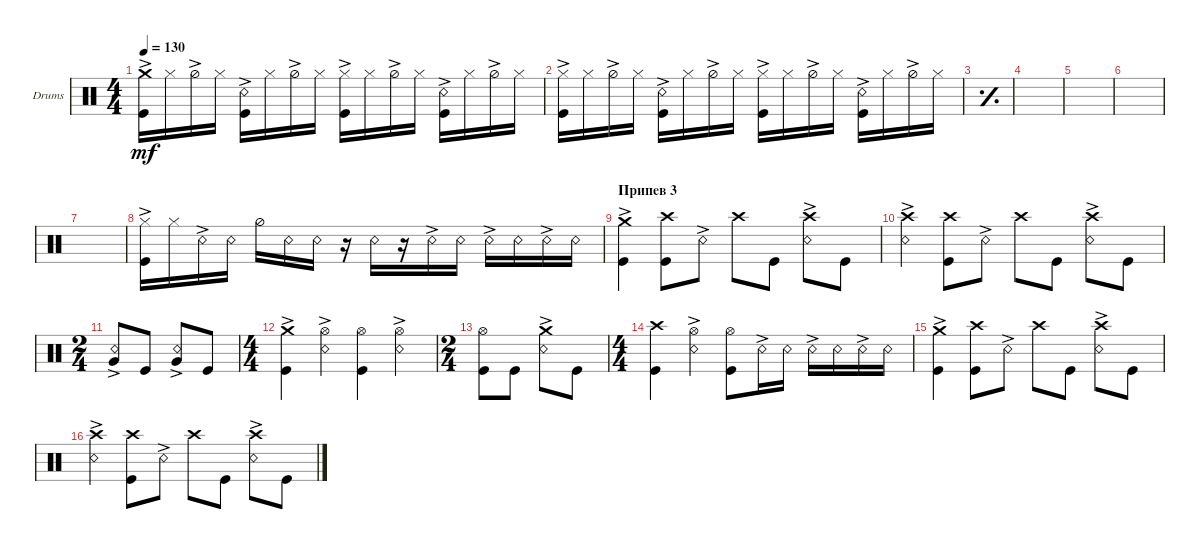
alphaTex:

\defaultSystemsLayout 4
\bracketExtendMode groupsimilarinstruments
\firstSystemTrackNameOrientation horizontal
\otherSystemsTrackNameOrientation horizontal
\track ("Drumkit" "Drums") {instrument percussion}
\staff {score}
\articulation defaults
\ts (4 4)
\tempo 130
\clef neutral
\ks c
("Crash medium (hit)"{ac} "Kick (hit)").16{dy mf} "Hi-Hat (closed)".16 "Hi-Hat (half)"{ac}.16 "Hi-Hat (closed)".16 ("Kick (hit)" "Snare (rim shot)"{ac}).16 "Hi-Hat (closed)".16 "Hi-Hat (half)"{ac}.16 "Hi-Hat (closed)".16 ("Hi-Hat (closed)"{ac} "Kick (hit)").16 "Hi-Hat (closed)".16 "Hi-Hat (half)"{ac}.16 "Hi-Hat (closed)".16 ("Kick (hit)" "Snare (rim shot)"{ac}).16 "Hi-Hat (closed)".16 "Hi-Hat (half)"{ac}.16 "Hi-Hat (closed)".16 |
("Kick (hit)" "Hi-Hat (closed)"{ac}).16 "Hi-Hat (closed)".16 "Hi-Hat (half)"{ac}.16 "Hi-Hat (closed)".16 ("Kick (hit)" "Snare (rim shot)"{ac}).16 "Hi-Hat (closed)".16 "Hi-Hat (half)"{ac}.16 "Hi-Hat (closed)".16 ("Hi-Hat (closed)"{ac} "Kick (hit)").16 "Hi-Hat (closed)".16 "Hi-Hat (half)"{ac}.16 "Hi-Hat (closed)".16 ("Kick (hit)" "Snare (rim shot)"{ac}).16 "Hi-Hat (closed)".16 "Hi-Hat (half)"{ac}.16 "Hi-Hat (closed)".16 |
\simile simple
|
|
|
|
|
\simile none
("Hi-Hat (closed)"{ac} "Kick (hit)").16 "Hi-Hat (closed)".16 "Snare (rim shot)"{ac}.16 "Snare (rim shot)".16 "Hi-Hat (half)".16 "Snare (rim shot)".16 "Snare (rim shot)".16 r.16 "Snare (rim shot)".16 r.16 "Snare (rim shot)"{ac}.16 "Snare (rim shot)".16 "Snare (rim shot)"{ac}.16 "Snare (rim shot)".16 "Snare (rim shot)"{ac}.16 "Snare (rim shot)".16 |
\section ("" "Припев 3")
("Crash medium (hit)"{ac} "Kick (hit)").4 ("Crash high (hit)" "Kick (hit)").8 "Snare (rim shot)"{ac}.8 "Crash high (hit)".8 "Kick (hit)".8 ("Crash high (hit)" "Snare (rim shot)"{ac}).8 "Kick (hit)".8 |
("Crash high (hit)" "Snare (rim shot)"{ac}).4 ("Crash high (hit)" "Kick (hit)").8 "Snare (rim shot)"{ac}.8 "Crash high (hit)".8 "Kick (hit)".8 ("Crash high (hit)" "Snare (rim shot)"{ac}).8 "Kick (hit)".8 |
\ts (2 4)
("Snare (rim shot)"{ac} "Very Low Tom (hit)").8 "Kick (hit)".8 ("Snare (rim shot)"{ac} "Very Low Tom (hit)").8 "Kick (hit)".8 |
\ts (4 4)
("Crash medium (hit)"{ac} "Kick (hit)").4 ("Hi-Hat (open)" "Snare (rim shot)"{ac}).4 ("Hi-Hat (open)" "Kick (hit)").4 ("Hi-Hat (open)" "Snare (rim shot)"{ac}).4 |
\ts (2 4)
("Hi-Hat (open)" "Kick (hit)").8 "Kick (hit)".8 ("Snare (rim shot)"{ac} "Crash medium (hit)"{ac}).8 "Kick (hit)".8 |
\ts (4 4)
("Kick (hit)" "Crash high (hit)").4 ("Hi-Hat (open)" "Snare (rim shot)"{ac}).4 ("Hi-Hat (open)" "Kick (hit)").8 "Snare (rim shot)"{ac}.16 "Snare (rim shot)".16 "Snare (rim shot)"{ac}.16 "Snare (rim shot)".16 "Snare (rim shot)"{ac}.16 "Snare (rim shot)".16 |
("Crash medium (hit)"{ac} "Kick (hit)").4 ("Crash high (hit)" "Kick (hit)").8 "Snare (rim shot)"{ac}.8 "Crash high (hit)".8 "Kick (hit)".8 ("Crash high (hit)" "Snare (rim shot)"{ac}).8 "Kick (hit)".8 |
("Crash high (hit)" "Snare (rim shot)"{ac}).4 ("Crash high (hit)" "Kick (hit)").8 "Snare (rim shot)"{ac}.8 "Crash high (hit)".8 "Kick (hit)".8 ("Crash high (hit)" "Snare (rim shot)"{ac}).8 "Kick (hit)".8
